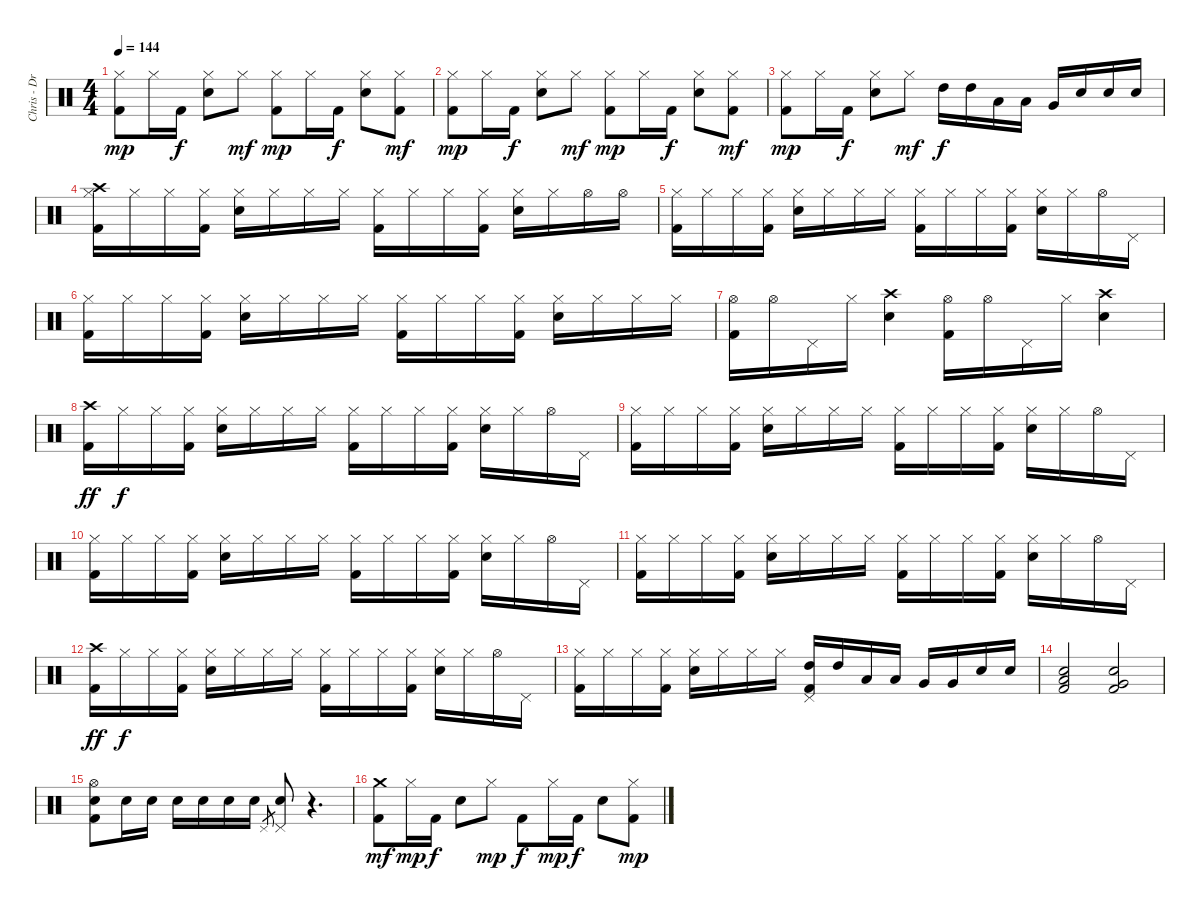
\track ("Chris - Drums" "Chris - Dr") {instrument percussion}
\staff {score}
\articulation defaults
\ts (4 4)
\tempo 144
\clef neutral
\ks c
("Hi-Hat (closed)" "Kick (hit) 2").8{dy mp} "Hi-Hat (closed)".16 "Kick (hit) 2".16{dy f} ("Hi-Hat (closed)" "Electric Snare (hit)").8 "Hi-Hat (closed)".8{dy mf} ("Hi-Hat (closed)" "Kick (hit) 2").8{dy mp} "Hi-Hat (closed)".16 "Kick (hit) 2".16{dy f} ("Hi-Hat (closed)" "Electric Snare (hit)").8 ("Hi-Hat (closed)" "Kick (hit) 2").8{dy mf} |
("Hi-Hat (closed)" "Kick (hit) 2").8{dy mp} "Hi-Hat (closed)".16 "Kick (hit) 2".16{dy f} ("Hi-Hat (closed)" "Electric Snare (hit)").8 "Hi-Hat (closed)".8{dy mf} ("Hi-Hat (closed)" "Kick (hit) 2").8{dy mp} "Hi-Hat (closed)".16 "Kick (hit) 2".16{dy f} ("Hi-Hat (closed)" "Electric Snare (hit)").8 ("Hi-Hat (closed)" "Kick (hit) 2").8{dy mf} |
("Hi-Hat (closed)" "Kick (hit) 2").8{dy mp} "Hi-Hat (closed)".16 "Kick (hit) 2".16{dy f} ("Hi-Hat (closed)" "Electric Snare (hit)").8 "Hi-Hat (closed)".8{dy mf} "High Tom (hit)".16{dy f} "High Tom (hit)".16 "Low Tom (hit)".16 "Low Tom (hit)".16 "Very Low Tom (hit)".16 "Electric Snare (hit)".16 "Electric Snare (hit)".16 "Electric Snare (hit)".16 |
("Crash high (hit)" "Hi-Hat (closed)" "Kick (hit) 2").16 "Hi-Hat (closed)".16 "Hi-Hat (closed)".16 ("Hi-Hat (closed)" "Kick (hit) 2").16 ("Hi-Hat (closed)" "Electric Snare (hit)").16 "Hi-Hat (closed)".16 "Hi-Hat (closed)".16 "Hi-Hat (closed)".16 ("Hi-Hat (closed)" "Kick (hit) 2").16 "Hi-Hat (closed)".16 "Hi-Hat (closed)".16 ("Hi-Hat (closed)" "Kick (hit) 2").16 ("Hi-Hat (closed)" "Electric Snare (hit)").16 "Hi-Hat (closed)".16 "Hi-Hat (open)".16 "Hi-Hat (open)".16 |
("Hi-Hat (closed)" "Kick (hit) 2").16 "Hi-Hat (closed)".16 "Hi-Hat (closed)".16 ("Hi-Hat (closed)" "Kick (hit) 2").16 ("Hi-Hat (closed)" "Electric Snare (hit)").16 "Hi-Hat (closed)".16 "Hi-Hat (closed)".16 "Hi-Hat (closed)".16 ("Hi-Hat (closed)" "Kick (hit) 2").16 "Hi-Hat (closed)".16 "Hi-Hat (closed)".16 ("Hi-Hat (closed)" "Kick (hit) 2").16 ("Hi-Hat (closed)" "Electric Snare (hit)").16 "Hi-Hat (closed)".16 "Hi-Hat (open)".16 "Pedal Hi-Hat (hit)".16 |
("Hi-Hat (closed)" "Kick (hit) 2").16 "Hi-Hat (closed)".16 "Hi-Hat (closed)".16 ("Hi-Hat (closed)" "Kick (hit) 2").16 ("Hi-Hat (closed)" "Electric Snare (hit)").16 "Hi-Hat (closed)".16 "Hi-Hat (closed)".16 "Hi-Hat (closed)".16 ("Hi-Hat (closed)" "Kick (hit) 2").16 "Hi-Hat (closed)".16 "Hi-Hat (closed)".16 ("Hi-Hat (closed)" "Kick (hit) 2").16 ("Hi-Hat (closed)" "Electric Snare (hit)").16 "Hi-Hat (closed)".16 "Hi-Hat (closed)".16 "Hi-Hat (closed)".16 |
("Hi-Hat (open)" "Kick (hit) 2").16 "Hi-Hat (open)".16 "Pedal Hi-Hat (hit)".16 "Hi-Hat (closed)".16 ("Crash high (hit)" "Electric Snare (hit)").4 ("Hi-Hat (open)" "Kick (hit) 2").16 "Hi-Hat (open)".16 "Pedal Hi-Hat (hit)".16 "Hi-Hat (closed)".16 ("Crash high (hit)" "Electric Snare (hit)").4 |
("Crash high (hit)" "Kick (hit) 2").16{dy ff} "Hi-Hat (closed)".16{dy f} "Hi-Hat (closed)".16 ("Hi-Hat (closed)" "Kick (hit) 2").16 ("Hi-Hat (closed)" "Electric Snare (hit)").16 "Hi-Hat (closed)".16 "Hi-Hat (closed)".16 "Hi-Hat (closed)".16 ("Hi-Hat (closed)" "Kick (hit) 2").16 "Hi-Hat (closed)".16 "Hi-Hat (closed)".16 ("Hi-Hat (closed)" "Kick (hit) 2").16 ("Hi-Hat (closed)" "Electric Snare (hit)").16 "Hi-Hat (closed)".16 "Hi-Hat (open)".16 "Pedal Hi-Hat (hit)".16 |
("Hi-Hat (closed)" "Kick (hit) 2").16 "Hi-Hat (closed)".16 "Hi-Hat (closed)".16 ("Hi-Hat (closed)" "Kick (hit) 2").16 ("Hi-Hat (closed)" "Electric Snare (hit)").16 "Hi-Hat (closed)".16 "Hi-Hat (closed)".16 "Hi-Hat (closed)".16 ("Hi-Hat (closed)" "Kick (hit) 2").16 "Hi-Hat (closed)".16 "Hi-Hat (closed)".16 ("Hi-Hat (closed)" "Kick (hit) 2").16 ("Hi-Hat (closed)" "Electric Snare (hit)").16 "Hi-Hat (closed)".16 "Hi-Hat (open)".16 "Pedal Hi-Hat (hit)".16 |
("Hi-Hat (closed)" "Kick (hit) 2").16 "Hi-Hat (closed)".16 "Hi-Hat (closed)".16 ("Hi-Hat (closed)" "Kick (hit) 2").16 ("Hi-Hat (closed)" "Electric Snare (hit)").16 "Hi-Hat (closed)".16 "Hi-Hat (closed)".16 "Hi-Hat (closed)".16 ("Hi-Hat (closed)" "Kick (hit) 2").16 "Hi-Hat (closed)".16 "Hi-Hat (closed)".16 ("Hi-Hat (closed)" "Kick (hit) 2").16 ("Hi-Hat (closed)" "Electric Snare (hit)").16 "Hi-Hat (closed)".16 "Hi-Hat (open)".16 "Pedal Hi-Hat (hit)".16 |
("Hi-Hat (closed)" "Kick (hit) 2").16 "Hi-Hat (closed)".16 "Hi-Hat (closed)".16 ("Hi-Hat (closed)" "Kick (hit) 2").16 ("Hi-Hat (closed)" "Electric Snare (hit)").16 "Hi-Hat (closed)".16 "Hi-Hat (closed)".16 "Hi-Hat (closed)".16 ("Hi-Hat (closed)" "Kick (hit) 2").16 "Hi-Hat (closed)".16 "Hi-Hat (closed)".16 ("Hi-Hat (closed)" "Kick (hit) 2").16 ("Hi-Hat (closed)" "Electric Snare (hit)").16 "Hi-Hat (closed)".16 "Hi-Hat (open)".16 "Pedal Hi-Hat (hit)".16 |
("Crash high (hit)" "Kick (hit) 2").16{dy ff} "Hi-Hat (closed)".16{dy f} "Hi-Hat (closed)".16 ("Hi-Hat (closed)" "Kick (hit) 2").16 ("Hi-Hat (closed)" "Electric Snare (hit)").16 "Hi-Hat (closed)".16 "Hi-Hat (closed)".16 "Hi-Hat (closed)".16 ("Hi-Hat (closed)" "Kick (hit) 2").16 "Hi-Hat (closed)".16 "Hi-Hat (closed)".16 ("Hi-Hat (closed)" "Kick (hit) 2").16 ("Hi-Hat (closed)" "Electric Snare (hit)").16 "Hi-Hat (closed)".16 "Hi-Hat (open)".16 "Pedal Hi-Hat (hit)".16 |
("Hi-Hat (closed)" "Kick (hit) 2").16 "Hi-Hat (closed)".16 "Hi-Hat (closed)".16 ("Hi-Hat (closed)" "Kick (hit) 2").16 ("Hi-Hat (closed)" "Electric Snare (hit)").16 "Hi-Hat (closed)".16 "Hi-Hat (closed)".16 "Hi-Hat (closed)".16 ("Pedal Hi-Hat (hit)" "High Tom (hit)" "Kick (hit) 2").16 "High Tom (hit)".16 "Low Tom (hit)".16 "Low Tom (hit)".16 "Very Low Tom (hit)".16 "Very Low Tom (hit)".16 "Electric Snare (hit)".16 "Electric Snare (hit)".16 |
("Low Tom (hit)" "Electric Snare (hit)" "Kick (hit) 2").2 ("Very Low Tom (hit)" "Electric Snare (hit)" "Kick (hit) 2").2 |
("Hi-Hat (open)" "Electric Snare (hit)" "Kick (hit) 2").8 "Electric Snare (hit)".16 "Electric Snare (hit)".16 "Electric Snare (hit)".16 "Electric Snare (hit)".16 "Electric Snare (hit)".16 "Electric Snare (hit)".16 "Pedal Hi-Hat (hit)".8{gr} ("Pedal Hi-Hat (hit)" "Electric Snare (hit)").8 r.4{d} |
("Crash medium (hit)" "Kick (hit) 2").8{dy mf} "Hi-Hat (closed)".16{dy mp} "Kick (hit) 2".16{dy f} "Electric Snare (hit)".8 "Hi-Hat (closed)".8{dy mp} "Kick (hit) 2".8{dy f} "Hi-Hat (closed)".16{dy mp} "Kick (hit) 2".16{dy f} "Electric Snare (hit)".8 ("Hi-Hat (closed)" "Kick (hit) 2").8{dy mp}
